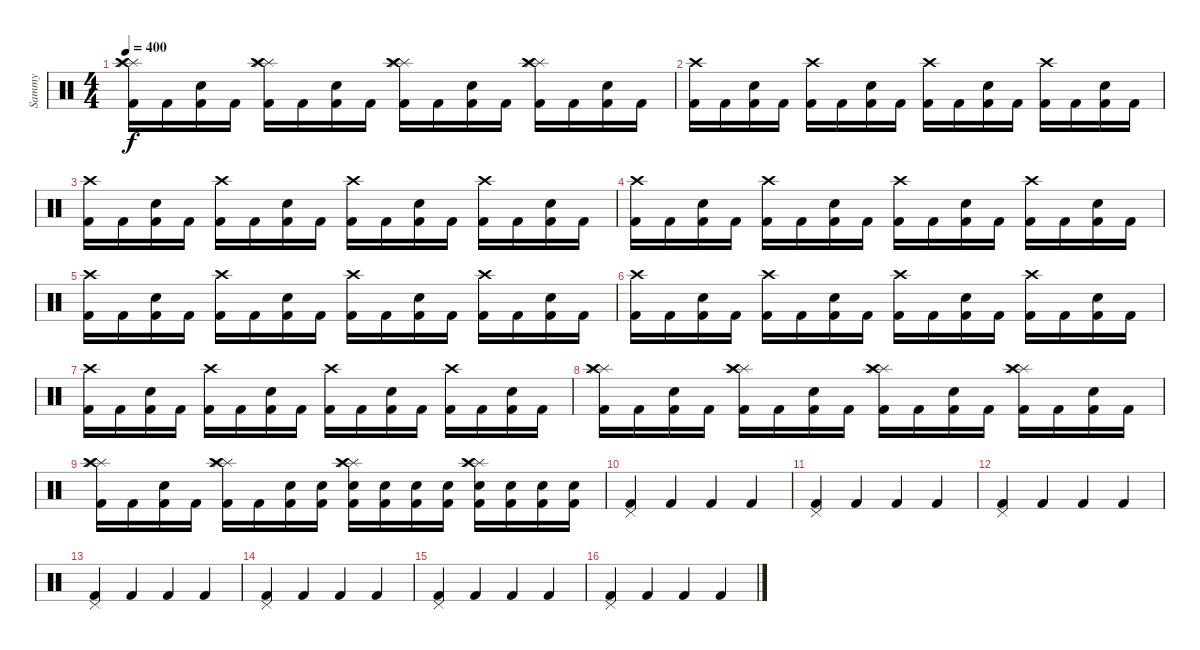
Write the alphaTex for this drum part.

\track ("Sammy" "Sammy") {instrument percussion}
\staff {score}
\articulation defaults
\ts (4 4)
\tempo 400
\clef neutral
\ks c
("Splash (hit)" "Splash (hit)" "Crash high (hit)" "Kick (hit) 2").16{dy f} "Kick (hit) 2".16 ("Electric Snare (hit)" "Kick (hit) 2").16 "Kick (hit) 2".16 ("Splash (hit)" "Splash (hit)" "Crash high (hit)" "Kick (hit) 2").16 "Kick (hit) 2".16 ("Electric Snare (hit)" "Kick (hit) 2").16 "Kick (hit) 2".16 ("Splash (hit)" "Splash (hit)" "Crash high (hit)" "Kick (hit) 2").16 "Kick (hit) 2".16 ("Electric Snare (hit)" "Kick (hit) 2").16 "Kick (hit) 2".16 ("Splash (hit)" "Splash (hit)" "Crash high (hit)" "Kick (hit) 2").16 "Kick (hit) 2".16 ("Electric Snare (hit)" "Kick (hit) 2").16 "Kick (hit) 2".16 |
("Crash high (hit)" "Kick (hit) 2").16 "Kick (hit) 2".16 ("Electric Snare (hit)" "Kick (hit) 2").16 "Kick (hit) 2".16 ("Crash high (hit)" "Kick (hit) 2").16 "Kick (hit) 2".16 ("Electric Snare (hit)" "Kick (hit) 2").16 "Kick (hit) 2".16 ("Crash high (hit)" "Kick (hit) 2").16 "Kick (hit) 2".16 ("Electric Snare (hit)" "Kick (hit) 2").16 "Kick (hit) 2".16 ("Crash high (hit)" "Kick (hit) 2").16 "Kick (hit) 2".16 ("Electric Snare (hit)" "Kick (hit) 2").16 "Kick (hit) 2".16 |
("Crash high (hit)" "Kick (hit) 2").16 "Kick (hit) 2".16 ("Electric Snare (hit)" "Kick (hit) 2").16 "Kick (hit) 2".16 ("Crash high (hit)" "Kick (hit) 2").16 "Kick (hit) 2".16 ("Electric Snare (hit)" "Kick (hit) 2").16 "Kick (hit) 2".16 ("Crash high (hit)" "Kick (hit) 2").16 "Kick (hit) 2".16 ("Electric Snare (hit)" "Kick (hit) 2").16 "Kick (hit) 2".16 ("Crash high (hit)" "Kick (hit) 2").16 "Kick (hit) 2".16 ("Electric Snare (hit)" "Kick (hit) 2").16 "Kick (hit) 2".16 |
("Crash high (hit)" "Kick (hit) 2").16 "Kick (hit) 2".16 ("Electric Snare (hit)" "Kick (hit) 2").16 "Kick (hit) 2".16 ("Crash high (hit)" "Kick (hit) 2").16 "Kick (hit) 2".16 ("Electric Snare (hit)" "Kick (hit) 2").16 "Kick (hit) 2".16 ("Crash high (hit)" "Kick (hit) 2").16 "Kick (hit) 2".16 ("Electric Snare (hit)" "Kick (hit) 2").16 "Kick (hit) 2".16 ("Crash high (hit)" "Kick (hit) 2").16 "Kick (hit) 2".16 ("Electric Snare (hit)" "Kick (hit) 2").16 "Kick (hit) 2".16 |
("Crash high (hit)" "Kick (hit) 2").16 "Kick (hit) 2".16 ("Electric Snare (hit)" "Kick (hit) 2").16 "Kick (hit) 2".16 ("Crash high (hit)" "Kick (hit) 2").16 "Kick (hit) 2".16 ("Electric Snare (hit)" "Kick (hit) 2").16 "Kick (hit) 2".16 ("Crash high (hit)" "Kick (hit) 2").16 "Kick (hit) 2".16 ("Electric Snare (hit)" "Kick (hit) 2").16 "Kick (hit) 2".16 ("Crash high (hit)" "Kick (hit) 2").16 "Kick (hit) 2".16 ("Electric Snare (hit)" "Kick (hit) 2").16 "Kick (hit) 2".16 |
("Crash high (hit)" "Kick (hit) 2").16 "Kick (hit) 2".16 ("Electric Snare (hit)" "Kick (hit) 2").16 "Kick (hit) 2".16 ("Crash high (hit)" "Kick (hit) 2").16 "Kick (hit) 2".16 ("Electric Snare (hit)" "Kick (hit) 2").16 "Kick (hit) 2".16 ("Crash high (hit)" "Kick (hit) 2").16 "Kick (hit) 2".16 ("Electric Snare (hit)" "Kick (hit) 2").16 "Kick (hit) 2".16 ("Crash high (hit)" "Kick (hit) 2").16 "Kick (hit) 2".16 ("Electric Snare (hit)" "Kick (hit) 2").16 "Kick (hit) 2".16 |
("Crash high (hit)" "Kick (hit) 2").16 "Kick (hit) 2".16 ("Electric Snare (hit)" "Kick (hit) 2").16 "Kick (hit) 2".16 ("Crash high (hit)" "Kick (hit) 2").16 "Kick (hit) 2".16 ("Electric Snare (hit)" "Kick (hit) 2").16 "Kick (hit) 2".16 ("Crash high (hit)" "Kick (hit) 2").16 "Kick (hit) 2".16 ("Electric Snare (hit)" "Kick (hit) 2").16 "Kick (hit) 2".16 ("Crash high (hit)" "Kick (hit) 2").16 "Kick (hit) 2".16 ("Electric Snare (hit)" "Kick (hit) 2").16 "Kick (hit) 2".16 |
("Splash (hit)" "Splash (hit)" "Crash high (hit)" "Kick (hit) 2").16 "Kick (hit) 2".16 ("Electric Snare (hit)" "Kick (hit) 2").16 "Kick (hit) 2".16 ("Splash (hit)" "Splash (hit)" "Crash high (hit)" "Kick (hit) 2").16 "Kick (hit) 2".16 ("Electric Snare (hit)" "Kick (hit) 2").16 "Kick (hit) 2".16 ("Splash (hit)" "Splash (hit)" "Crash high (hit)" "Kick (hit) 2").16 "Kick (hit) 2".16 ("Electric Snare (hit)" "Kick (hit) 2").16 "Kick (hit) 2".16 ("Splash (hit)" "Splash (hit)" "Crash high (hit)" "Kick (hit) 2").16 "Kick (hit) 2".16 ("Electric Snare (hit)" "Kick (hit) 2").16 "Kick (hit) 2".16 |
("Splash (hit)" "Splash (hit)" "Crash high (hit)" "Kick (hit) 2").16 "Kick (hit) 2".16 ("Electric Snare (hit)" "Kick (hit) 2").16 "Kick (hit) 2".16 ("Splash (hit)" "Splash (hit)" "Crash high (hit)" "Kick (hit) 2").16 "Kick (hit) 2".16 ("Electric Snare (hit)" "Kick (hit) 2").16 ("Electric Snare (hit)" "Kick (hit) 2").16 ("Splash (hit)" "Splash (hit)" "Crash high (hit)" "Electric Snare (hit)" "Kick (hit) 2").16 ("Electric Snare (hit)" "Kick (hit) 2").16 ("Electric Snare (hit)" "Kick (hit) 2").16 ("Electric Snare (hit)" "Kick (hit) 2").16 ("Splash (hit)" "Splash (hit)" "Crash high (hit)" "Electric Snare (hit)" "Kick (hit) 2").16 ("Electric Snare (hit)" "Kick (hit) 2").16 ("Electric Snare (hit)" "Kick (hit) 2").16 ("Electric Snare (hit)" "Kick (hit) 2").16 |
("Pedal Hi-Hat (hit)" "Kick (hit) 2").4 "Kick (hit) 2".4 "Kick (hit) 2".4 "Kick (hit) 2".4 |
("Pedal Hi-Hat (hit)" "Kick (hit) 2").4 "Kick (hit) 2".4 "Kick (hit) 2".4 "Kick (hit) 2".4 |
("Pedal Hi-Hat (hit)" "Kick (hit) 2").4 "Kick (hit) 2".4 "Kick (hit) 2".4 "Kick (hit) 2".4 |
("Pedal Hi-Hat (hit)" "Kick (hit) 2").4 "Kick (hit) 2".4 "Kick (hit) 2".4 "Kick (hit) 2".4 |
("Pedal Hi-Hat (hit)" "Kick (hit) 2").4 "Kick (hit) 2".4 "Kick (hit) 2".4 "Kick (hit) 2".4 |
("Pedal Hi-Hat (hit)" "Kick (hit) 2").4 "Kick (hit) 2".4 "Kick (hit) 2".4 "Kick (hit) 2".4 |
("Pedal Hi-Hat (hit)" "Kick (hit) 2").4 "Kick (hit) 2".4 "Kick (hit) 2".4 "Kick (hit) 2".4
